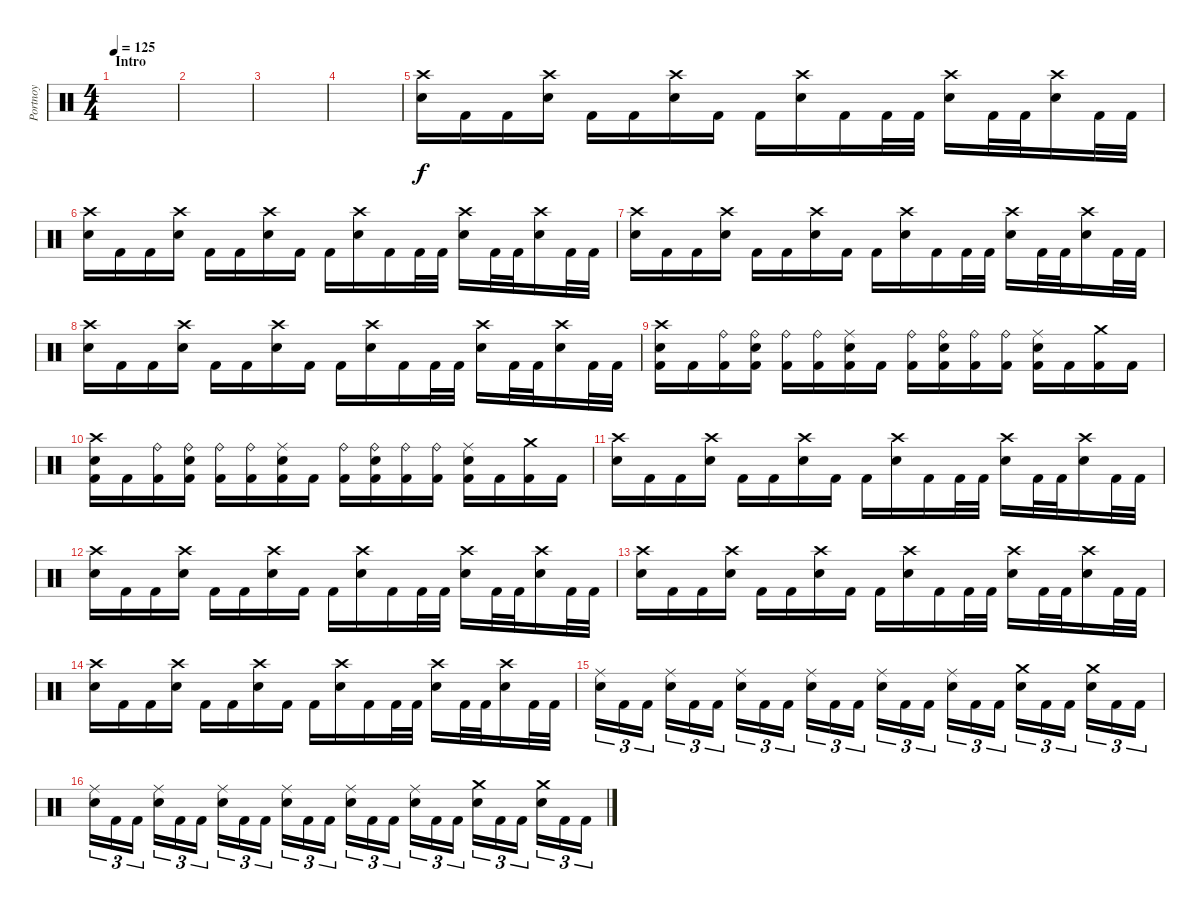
\track ("Portnoy" "Portnoy") {instrument percussion}
\staff {score}
\articulation defaults
\ts (4 4)
\section ("" "Intro")
\tempo 125
\clef neutral
\ks c
|
|
|
|
("Crash high (hit)" "Snare (hit) 2").16 "Kick (hit) 2".16 "Kick (hit) 2".16 ("Crash high (hit)" "Snare (hit) 2").16 "Kick (hit) 2".16 "Kick (hit) 2".16 ("Crash high (hit)" "Snare (hit) 2").16 "Kick (hit) 2".16 "Kick (hit) 2".16 ("Crash high (hit)" "Snare (hit) 2").16 "Kick (hit) 2".16 "Kick (hit) 2".32 "Kick (hit) 2".32 ("Crash high (hit)" "Snare (hit) 2").16 "Kick (hit) 2".32 "Kick (hit) 2".32 ("Crash high (hit)" "Snare (hit) 2").16 "Kick (hit) 2".32 "Kick (hit) 2".32 |
("Crash high (hit)" "Snare (hit) 2").16 "Kick (hit) 2".16 "Kick (hit) 2".16 ("Crash high (hit)" "Snare (hit) 2").16 "Kick (hit) 2".16 "Kick (hit) 2".16 ("Crash high (hit)" "Snare (hit) 2").16 "Kick (hit) 2".16 "Kick (hit) 2".16 ("Crash high (hit)" "Snare (hit) 2").16 "Kick (hit) 2".16 "Kick (hit) 2".32 "Kick (hit) 2".32 ("Crash high (hit)" "Snare (hit) 2").16 "Kick (hit) 2".32 "Kick (hit) 2".32 ("Crash high (hit)" "Snare (hit) 2").16 "Kick (hit) 2".32 "Kick (hit) 2".32 |
("Crash high (hit)" "Snare (hit) 2").16 "Kick (hit) 2".16 "Kick (hit) 2".16 ("Crash high (hit)" "Snare (hit) 2").16 "Kick (hit) 2".16 "Kick (hit) 2".16 ("Crash high (hit)" "Snare (hit) 2").16 "Kick (hit) 2".16 "Kick (hit) 2".16 ("Crash high (hit)" "Snare (hit) 2").16 "Kick (hit) 2".16 "Kick (hit) 2".32 "Kick (hit) 2".32 ("Crash high (hit)" "Snare (hit) 2").16 "Kick (hit) 2".32 "Kick (hit) 2".32 ("Crash high (hit)" "Snare (hit) 2").16 "Kick (hit) 2".32 "Kick (hit) 2".32 |
("Crash high (hit)" "Snare (hit) 2").16 "Kick (hit) 2".16 "Kick (hit) 2".16 ("Crash high (hit)" "Snare (hit) 2").16 "Kick (hit) 2".16 "Kick (hit) 2".16 ("Crash high (hit)" "Snare (hit) 2").16 "Kick (hit) 2".16 "Kick (hit) 2".16 ("Crash high (hit)" "Snare (hit) 2").16 "Kick (hit) 2".16 "Kick (hit) 2".32 "Kick (hit) 2".32 ("Crash high (hit)" "Snare (hit) 2").16 "Kick (hit) 2".32 "Kick (hit) 2".32 ("Crash high (hit)" "Snare (hit) 2").16 "Kick (hit) 2".32 "Kick (hit) 2".32 |
("Crash high (hit)" "Snare (hit) 2" "Kick (hit) 2").16 "Kick (hit) 2".16 ("Ride (bell)" "Kick (hit) 2").16 ("Ride (bell)" "Snare (hit) 2" "Kick (hit) 2").16 ("Ride (bell)" "Kick (hit) 2").16 ("Ride (bell)" "Kick (hit) 2").16 ("Ride (middle)" "Snare (hit) 2" "Kick (hit) 2").16 "Kick (hit) 2".16 ("Ride (bell)" "Kick (hit) 2").16 ("Ride (bell)" "Snare (hit) 2" "Kick (hit) 2").16 ("Ride (bell)" "Kick (hit) 2").16 ("Ride (bell)" "Kick (hit) 2").16 ("Ride (middle)" "Snare (hit) 2" "Kick (hit) 2").16 "Kick (hit) 2".16 ("Crash medium (hit)" "Kick (hit) 2").16 "Kick (hit) 2".16 |
("Crash high (hit)" "Snare (hit) 2" "Kick (hit) 2").16 "Kick (hit) 2".16 ("Ride (bell)" "Kick (hit) 2").16 ("Ride (bell)" "Snare (hit) 2" "Kick (hit) 2").16 ("Ride (bell)" "Kick (hit) 2").16 ("Ride (bell)" "Kick (hit) 2").16 ("Ride (middle)" "Snare (hit) 2" "Kick (hit) 2").16 "Kick (hit) 2".16 ("Ride (bell)" "Kick (hit) 2").16 ("Ride (bell)" "Snare (hit) 2" "Kick (hit) 2").16 ("Ride (bell)" "Kick (hit) 2").16 ("Ride (bell)" "Kick (hit) 2").16 ("Ride (middle)" "Snare (hit) 2" "Kick (hit) 2").16 "Kick (hit) 2".16 ("Crash medium (hit)" "Kick (hit) 2").16 "Kick (hit) 2".16 |
("Crash high (hit)" "Snare (hit) 2").16 "Kick (hit) 2".16 "Kick (hit) 2".16 ("Crash high (hit)" "Snare (hit) 2").16 "Kick (hit) 2".16 "Kick (hit) 2".16 ("Crash high (hit)" "Snare (hit) 2").16 "Kick (hit) 2".16 "Kick (hit) 2".16 ("Crash high (hit)" "Snare (hit) 2").16 "Kick (hit) 2".16 "Kick (hit) 2".32 "Kick (hit) 2".32 ("Crash high (hit)" "Snare (hit) 2").16 "Kick (hit) 2".32 "Kick (hit) 2".32 ("Crash high (hit)" "Snare (hit) 2").16 "Kick (hit) 2".32 "Kick (hit) 2".32 |
("Crash high (hit)" "Snare (hit) 2").16 "Kick (hit) 2".16 "Kick (hit) 2".16 ("Crash high (hit)" "Snare (hit) 2").16 "Kick (hit) 2".16 "Kick (hit) 2".16 ("Crash high (hit)" "Snare (hit) 2").16 "Kick (hit) 2".16 "Kick (hit) 2".16 ("Crash high (hit)" "Snare (hit) 2").16 "Kick (hit) 2".16 "Kick (hit) 2".32 "Kick (hit) 2".32 ("Crash high (hit)" "Snare (hit) 2").16 "Kick (hit) 2".32 "Kick (hit) 2".32 ("Crash high (hit)" "Snare (hit) 2").16 "Kick (hit) 2".32 "Kick (hit) 2".32 |
("Crash high (hit)" "Snare (hit) 2").16 "Kick (hit) 2".16 "Kick (hit) 2".16 ("Crash high (hit)" "Snare (hit) 2").16 "Kick (hit) 2".16 "Kick (hit) 2".16 ("Crash high (hit)" "Snare (hit) 2").16 "Kick (hit) 2".16 "Kick (hit) 2".16 ("Crash high (hit)" "Snare (hit) 2").16 "Kick (hit) 2".16 "Kick (hit) 2".32 "Kick (hit) 2".32 ("Crash high (hit)" "Snare (hit) 2").16 "Kick (hit) 2".32 "Kick (hit) 2".32 ("Crash high (hit)" "Snare (hit) 2").16 "Kick (hit) 2".32 "Kick (hit) 2".32 |
("Crash high (hit)" "Snare (hit) 2").16 "Kick (hit) 2".16 "Kick (hit) 2".16 ("Crash high (hit)" "Snare (hit) 2").16 "Kick (hit) 2".16 "Kick (hit) 2".16 ("Crash high (hit)" "Snare (hit) 2").16 "Kick (hit) 2".16 "Kick (hit) 2".16 ("Crash high (hit)" "Snare (hit) 2").16 "Kick (hit) 2".16 "Kick (hit) 2".32 "Kick (hit) 2".32 ("Crash high (hit)" "Snare (hit) 2").16 "Kick (hit) 2".32 "Kick (hit) 2".32 ("Crash high (hit)" "Snare (hit) 2").16 "Kick (hit) 2".32 "Kick (hit) 2".32 |
("Ride (middle)" "Snare (hit) 2").16{tu (3 2)} "Kick (hit) 2".16{tu (3 2)} "Kick (hit) 2".16{tu (3 2)} ("Ride (middle)" "Snare (hit) 2").16{tu (3 2)} "Kick (hit) 2".16{tu (3 2)} "Kick (hit) 2".16{tu (3 2)} ("Ride (middle)" "Snare (hit) 2").16{tu (3 2)} "Kick (hit) 2".16{tu (3 2)} "Kick (hit) 2".16{tu (3 2)} ("Ride (middle)" "Snare (hit) 2").16{tu (3 2)} "Kick (hit) 2".16{tu (3 2)} "Kick (hit) 2".16{tu (3 2)} ("Ride (middle)" "Snare (hit) 2").16{tu (3 2)} "Kick (hit) 2".16{tu (3 2)} "Kick (hit) 2".16{tu (3 2)} ("Ride (middle)" "Snare (hit) 2").16{tu (3 2)} "Kick (hit) 2".16{tu (3 2)} "Kick (hit) 2".16{tu (3 2)} ("Crash medium (hit)" "Snare (hit) 2").16{tu (3 2)} "Kick (hit) 2".16{tu (3 2)} "Kick (hit) 2".16{tu (3 2)} ("Crash medium (hit)" "Snare (hit) 2").16{tu (3 2)} "Kick (hit) 2".16{tu (3 2)} "Kick (hit) 2".16{tu (3 2)} |
("Ride (middle)" "Snare (hit) 2").16{tu (3 2)} "Kick (hit) 2".16{tu (3 2)} "Kick (hit) 2".16{tu (3 2)} ("Ride (middle)" "Snare (hit) 2").16{tu (3 2)} "Kick (hit) 2".16{tu (3 2)} "Kick (hit) 2".16{tu (3 2)} ("Ride (middle)" "Snare (hit) 2").16{tu (3 2)} "Kick (hit) 2".16{tu (3 2)} "Kick (hit) 2".16{tu (3 2)} ("Ride (middle)" "Snare (hit) 2").16{tu (3 2)} "Kick (hit) 2".16{tu (3 2)} "Kick (hit) 2".16{tu (3 2)} ("Ride (middle)" "Snare (hit) 2").16{tu (3 2)} "Kick (hit) 2".16{tu (3 2)} "Kick (hit) 2".16{tu (3 2)} ("Ride (middle)" "Snare (hit) 2").16{tu (3 2)} "Kick (hit) 2".16{tu (3 2)} "Kick (hit) 2".16{tu (3 2)} ("Crash medium (hit)" "Snare (hit) 2").16{tu (3 2)} "Kick (hit) 2".16{tu (3 2)} "Kick (hit) 2".16{tu (3 2)} ("Crash medium (hit)" "Snare (hit) 2").16{tu (3 2)} "Kick (hit) 2".16{tu (3 2)} "Kick (hit) 2".16{tu (3 2)}
